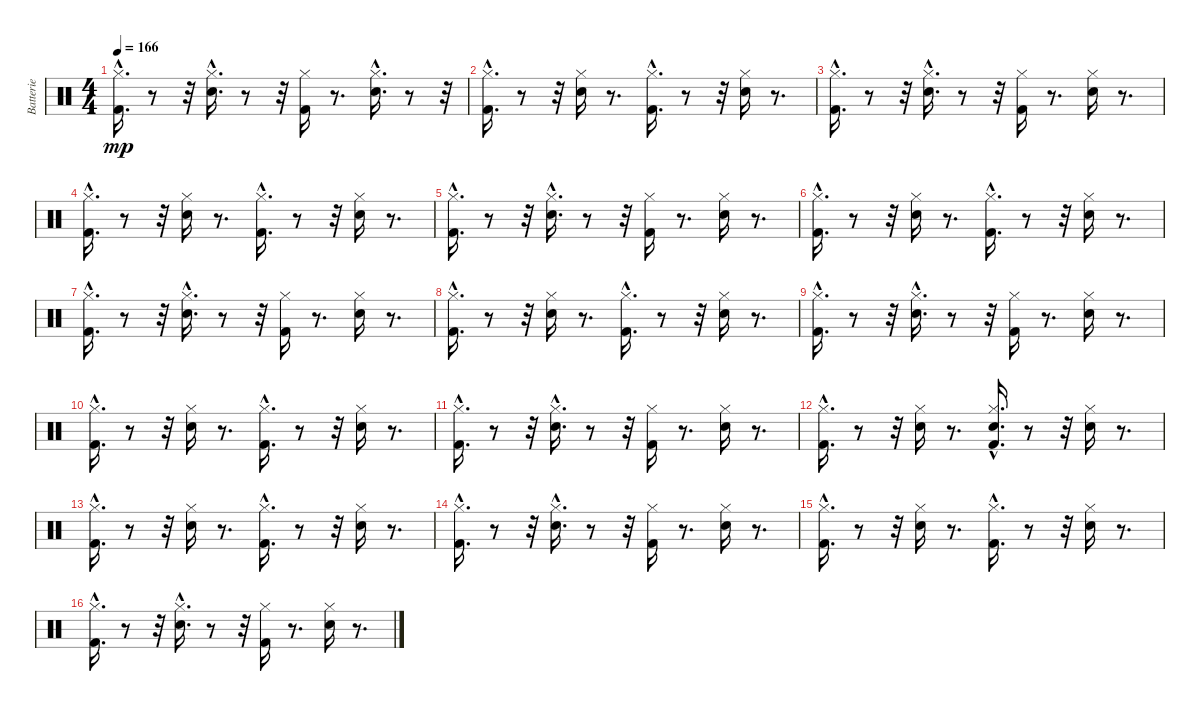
\track ("Batterie" "Batterie") {instrument percussion}
\staff {score}
\articulation defaults
\ts (4 4)
\tempo 166
\clef neutral
\ks c
("Kick (hit) 2"{hac} "Hi-Hat (closed)").16{d dy mp} r.8 r.32 ("Electric Snare (hit)" "Hi-Hat (closed)"{hac}).16{d} r.8 r.32 ("Kick (hit) 2" "Hi-Hat (closed)").16 r.8{d} ("Electric Snare (hit)"{hac} "Hi-Hat (closed)").16{d} r.8 r.32 |
("Kick (hit) 2"{hac} "Hi-Hat (closed)"{hac}).16{d} r.8 r.32 ("Electric Snare (hit)" "Hi-Hat (closed)").16 r.8{d} ("Kick (hit) 2"{hac} "Hi-Hat (closed)").16{d} r.8 r.32 ("Electric Snare (hit)" "Hi-Hat (closed)").16 r.8{d} |
("Kick (hit) 2"{hac} "Hi-Hat (closed)").16{d} r.8 r.32 ("Electric Snare (hit)" "Hi-Hat (closed)"{hac}).16{d} r.8 r.32 ("Kick (hit) 2" "Hi-Hat (closed)").16 r.8{d} ("Electric Snare (hit)" "Hi-Hat (closed)").16 r.8{d} |
("Kick (hit) 2"{hac} "Hi-Hat (closed)"{hac}).16{d} r.8 r.32 ("Electric Snare (hit)" "Hi-Hat (closed)").16 r.8{d} ("Kick (hit) 2"{hac} "Hi-Hat (closed)").16{d} r.8 r.32 ("Electric Snare (hit)" "Hi-Hat (closed)").16 r.8{d} |
("Kick (hit) 2"{hac} "Hi-Hat (closed)").16{d} r.8 r.32 ("Electric Snare (hit)" "Hi-Hat (closed)"{hac}).16{d} r.8 r.32 ("Kick (hit) 2" "Hi-Hat (closed)").16 r.8{d} ("Electric Snare (hit)" "Hi-Hat (closed)").16 r.8{d} |
("Kick (hit) 2"{hac} "Hi-Hat (closed)"{hac}).16{d} r.8 r.32 ("Electric Snare (hit)" "Hi-Hat (closed)").16 r.8{d} ("Kick (hit) 2"{hac} "Hi-Hat (closed)").16{d} r.8 r.32 ("Electric Snare (hit)" "Hi-Hat (closed)").16 r.8{d} |
("Kick (hit) 2"{hac} "Hi-Hat (closed)").16{d} r.8 r.32 ("Electric Snare (hit)" "Hi-Hat (closed)"{hac}).16{d} r.8 r.32 ("Kick (hit) 2" "Hi-Hat (closed)").16 r.8{d} ("Electric Snare (hit)" "Hi-Hat (closed)").16 r.8{d} |
("Kick (hit) 2"{hac} "Hi-Hat (closed)"{hac}).16{d} r.8 r.32 ("Electric Snare (hit)" "Hi-Hat (closed)").16 r.8{d} ("Kick (hit) 2"{hac} "Hi-Hat (closed)").16{d} r.8 r.32 ("Electric Snare (hit)" "Hi-Hat (closed)").16 r.8{d} |
("Kick (hit) 2"{hac} "Hi-Hat (closed)").16{d} r.8 r.32 ("Electric Snare (hit)" "Hi-Hat (closed)"{hac}).16{d} r.8 r.32 ("Kick (hit) 2" "Hi-Hat (closed)").16 r.8{d} ("Electric Snare (hit)" "Hi-Hat (closed)").16 r.8{d} |
("Kick (hit) 2"{hac} "Hi-Hat (closed)"{hac}).16{d} r.8 r.32 ("Electric Snare (hit)" "Hi-Hat (closed)").16 r.8{d} ("Kick (hit) 2"{hac} "Hi-Hat (closed)").16{d} r.8 r.32 ("Electric Snare (hit)" "Hi-Hat (closed)").16 r.8{d} |
("Kick (hit) 2"{hac} "Hi-Hat (closed)").16{d} r.8 r.32 ("Electric Snare (hit)" "Hi-Hat (closed)"{hac}).16{d} r.8 r.32 ("Kick (hit) 2" "Hi-Hat (closed)").16 r.8{d} ("Electric Snare (hit)" "Hi-Hat (closed)").16 r.8{d} |
("Kick (hit) 2"{hac} "Hi-Hat (closed)"{hac}).16{d} r.8 r.32 ("Electric Snare (hit)" "Hi-Hat (closed)").16 r.8{d} ("Kick (hit) 2"{hac} "Electric Snare (hit)" "Hi-Hat (closed)").16{d} r.8 r.32 ("Electric Snare (hit)" "Hi-Hat (closed)").16 r.8{d} |
("Kick (hit) 2"{hac} "Hi-Hat (closed)"{hac}).16{d} r.8 r.32 ("Electric Snare (hit)" "Hi-Hat (closed)").16 r.8{d} ("Kick (hit) 2"{hac} "Hi-Hat (closed)").16{d} r.8 r.32 ("Electric Snare (hit)" "Hi-Hat (closed)").16 r.8{d} |
("Kick (hit) 2"{hac} "Hi-Hat (closed)").16{d} r.8 r.32 ("Electric Snare (hit)" "Hi-Hat (closed)"{hac}).16{d} r.8 r.32 ("Kick (hit) 2" "Hi-Hat (closed)").16 r.8{d} ("Electric Snare (hit)" "Hi-Hat (closed)").16 r.8{d} |
("Kick (hit) 2"{hac} "Hi-Hat (closed)"{hac}).16{d} r.8 r.32 ("Electric Snare (hit)" "Hi-Hat (closed)").16 r.8{d} ("Kick (hit) 2"{hac} "Hi-Hat (closed)").16{d} r.8 r.32 ("Electric Snare (hit)" "Hi-Hat (closed)").16 r.8{d} |
("Kick (hit) 2"{hac} "Hi-Hat (closed)").16{d} r.8 r.32 ("Electric Snare (hit)" "Hi-Hat (closed)"{hac}).16{d} r.8 r.32 ("Kick (hit) 2" "Hi-Hat (closed)").16 r.8{d} ("Electric Snare (hit)" "Hi-Hat (closed)").16 r.8{d}
